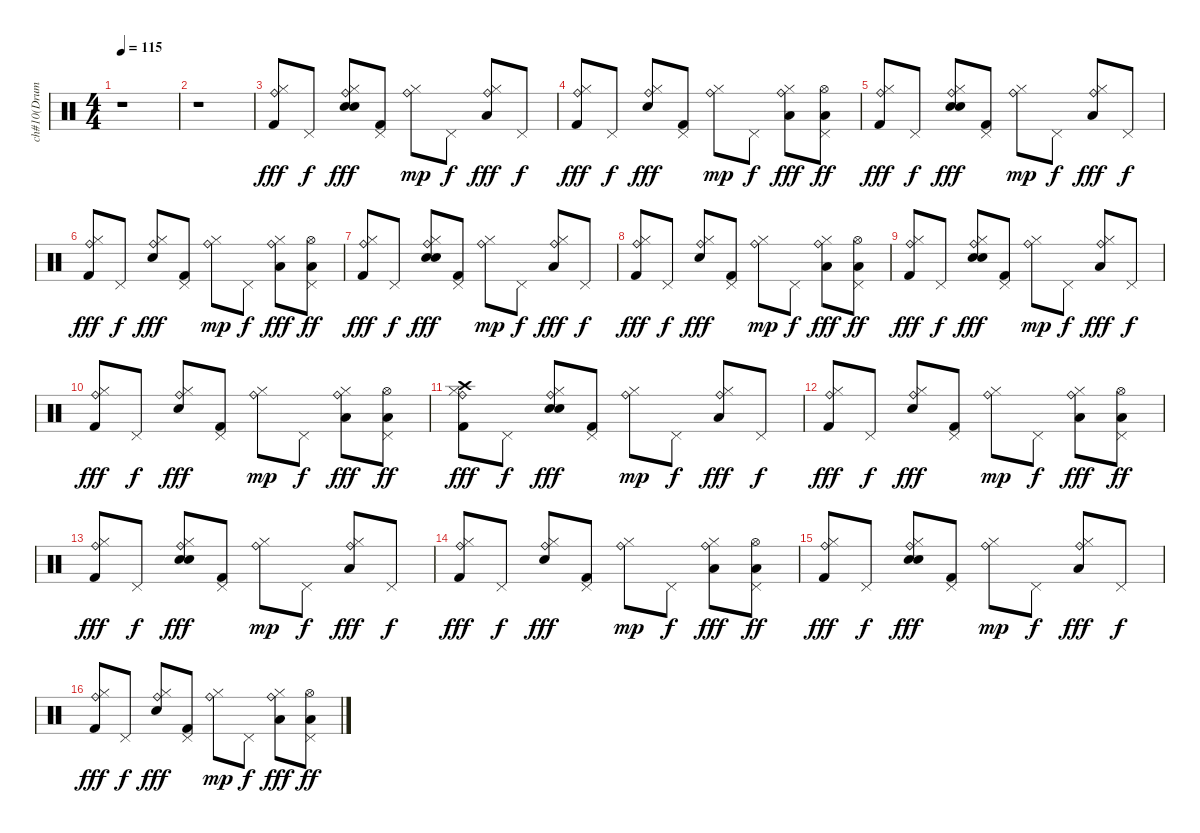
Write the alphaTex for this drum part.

\track ("ch#10(Drums)" "ch#10(Drum") {instrument percussion}
\staff {score}
\articulation defaults
\ts (4 4)
\tempo 115
\clef neutral
\ks c
r.1{dy fff} |
r.1 |
("Ride (bell)" "Hi-Hat (closed)" "Kick (hit) 2").8 "Pedal Hi-Hat (hit)".8{dy f} ("Electric Snare (hit)" "Ride (bell)" "Hi-Hat (closed)" "Electric Snare (hit)").8{dy fff} ("Kick (hit) 2" "Pedal Hi-Hat (hit)").8 ("Ride (bell)" "Hi-Hat (closed)").8{dy mp} "Pedal Hi-Hat (hit)".8{dy f} ("Ride (bell)" "Low Floor Tom (hit)" "Hi-Hat (closed)").8{dy fff} "Pedal Hi-Hat (hit)".8{dy f} |
("Ride (bell)" "Hi-Hat (closed)" "Kick (hit) 2").8{dy fff} "Pedal Hi-Hat (hit)".8{dy f} ("Ride (bell)" "Hi-Hat (closed)" "Electric Snare (hit)").8{dy fff} ("Pedal Hi-Hat (hit)" "Kick (hit) 2").8 ("Ride (bell)" "Hi-Hat (closed)").8{dy mp} "Pedal Hi-Hat (hit)".8{dy f} ("Ride (bell)" "Low Floor Tom (hit)" "Hi-Hat (closed)").8{dy fff} ("Hi-Hat (open)" "Low Floor Tom (hit)" "Pedal Hi-Hat (hit)").8{dy ff} |
("Ride (bell)" "Hi-Hat (closed)" "Kick (hit) 2").8{dy fff} "Pedal Hi-Hat (hit)".8{dy f} ("Electric Snare (hit)" "Ride (bell)" "Hi-Hat (closed)" "Electric Snare (hit)").8{dy fff} ("Kick (hit) 2" "Pedal Hi-Hat (hit)").8 ("Ride (bell)" "Hi-Hat (closed)").8{dy mp} "Pedal Hi-Hat (hit)".8{dy f} ("Ride (bell)" "Low Floor Tom (hit)" "Hi-Hat (closed)").8{dy fff} "Pedal Hi-Hat (hit)".8{dy f} |
("Ride (bell)" "Hi-Hat (closed)" "Kick (hit) 2").8{dy fff} "Pedal Hi-Hat (hit)".8{dy f} ("Ride (bell)" "Hi-Hat (closed)" "Electric Snare (hit)").8{dy fff} ("Pedal Hi-Hat (hit)" "Kick (hit) 2").8 ("Ride (bell)" "Hi-Hat (closed)").8{dy mp} "Pedal Hi-Hat (hit)".8{dy f} ("Ride (bell)" "Low Floor Tom (hit)" "Hi-Hat (closed)").8{dy fff} ("Hi-Hat (open)" "Low Floor Tom (hit)" "Pedal Hi-Hat (hit)").8{dy ff} |
("Ride (bell)" "Hi-Hat (closed)" "Kick (hit) 2").8{dy fff} "Pedal Hi-Hat (hit)".8{dy f} ("Electric Snare (hit)" "Ride (bell)" "Hi-Hat (closed)" "Electric Snare (hit)").8{dy fff} ("Kick (hit) 2" "Pedal Hi-Hat (hit)").8 ("Ride (bell)" "Hi-Hat (closed)").8{dy mp} "Pedal Hi-Hat (hit)".8{dy f} ("Ride (bell)" "Low Floor Tom (hit)" "Hi-Hat (closed)").8{dy fff} "Pedal Hi-Hat (hit)".8{dy f} |
("Ride (bell)" "Hi-Hat (closed)" "Kick (hit) 2").8{dy fff} "Pedal Hi-Hat (hit)".8{dy f} ("Ride (bell)" "Hi-Hat (closed)" "Electric Snare (hit)").8{dy fff} ("Pedal Hi-Hat (hit)" "Kick (hit) 2").8 ("Ride (bell)" "Hi-Hat (closed)").8{dy mp} "Pedal Hi-Hat (hit)".8{dy f} ("Ride (bell)" "Low Floor Tom (hit)" "Hi-Hat (closed)").8{dy fff} ("Hi-Hat (open)" "Low Floor Tom (hit)" "Pedal Hi-Hat (hit)").8{dy ff} |
("Ride (bell)" "Hi-Hat (closed)" "Kick (hit) 2").8{dy fff} "Pedal Hi-Hat (hit)".8{dy f} ("Electric Snare (hit)" "Ride (bell)" "Hi-Hat (closed)" "Electric Snare (hit)").8{dy fff} ("Kick (hit) 2" "Pedal Hi-Hat (hit)").8 ("Ride (bell)" "Hi-Hat (closed)").8{dy mp} "Pedal Hi-Hat (hit)".8{dy f} ("Ride (bell)" "Low Floor Tom (hit)" "Hi-Hat (closed)").8{dy fff} "Pedal Hi-Hat (hit)".8{dy f} |
("Ride (bell)" "Hi-Hat (closed)" "Kick (hit) 2").8{dy fff} "Pedal Hi-Hat (hit)".8{dy f} ("Ride (bell)" "Hi-Hat (closed)" "Electric Snare (hit)").8{dy fff} ("Pedal Hi-Hat (hit)" "Kick (hit) 2").8 ("Ride (bell)" "Hi-Hat (closed)").8{dy mp} "Pedal Hi-Hat (hit)".8{dy f} ("Ride (bell)" "Low Floor Tom (hit)" "Hi-Hat (closed)").8{dy fff} ("Hi-Hat (open)" "Low Floor Tom (hit)" "Pedal Hi-Hat (hit)").8{dy ff} |
("Ride (bell)" "Hi-Hat (closed)" "Kick (hit) 2" "Crash high (hit)").8{dy fff} "Pedal Hi-Hat (hit)".8{dy f} ("Electric Snare (hit)" "Ride (bell)" "Hi-Hat (closed)" "Electric Snare (hit)").8{dy fff} ("Kick (hit) 2" "Pedal Hi-Hat (hit)").8 ("Ride (bell)" "Hi-Hat (closed)").8{dy mp} "Pedal Hi-Hat (hit)".8{dy f} ("Ride (bell)" "Low Floor Tom (hit)" "Hi-Hat (closed)").8{dy fff} "Pedal Hi-Hat (hit)".8{dy f} |
("Ride (bell)" "Hi-Hat (closed)" "Kick (hit) 2").8{dy fff} "Pedal Hi-Hat (hit)".8{dy f} ("Ride (bell)" "Hi-Hat (closed)" "Electric Snare (hit)").8{dy fff} ("Pedal Hi-Hat (hit)" "Kick (hit) 2").8 ("Ride (bell)" "Hi-Hat (closed)").8{dy mp} "Pedal Hi-Hat (hit)".8{dy f} ("Ride (bell)" "Low Floor Tom (hit)" "Hi-Hat (closed)").8{dy fff} ("Hi-Hat (open)" "Low Floor Tom (hit)" "Pedal Hi-Hat (hit)").8{dy ff} |
("Ride (bell)" "Hi-Hat (closed)" "Kick (hit) 2").8{dy fff} "Pedal Hi-Hat (hit)".8{dy f} ("Electric Snare (hit)" "Ride (bell)" "Hi-Hat (closed)" "Electric Snare (hit)").8{dy fff} ("Kick (hit) 2" "Pedal Hi-Hat (hit)").8 ("Ride (bell)" "Hi-Hat (closed)").8{dy mp} "Pedal Hi-Hat (hit)".8{dy f} ("Ride (bell)" "Low Floor Tom (hit)" "Hi-Hat (closed)").8{dy fff} "Pedal Hi-Hat (hit)".8{dy f} |
("Ride (bell)" "Hi-Hat (closed)" "Kick (hit) 2").8{dy fff} "Pedal Hi-Hat (hit)".8{dy f} ("Ride (bell)" "Hi-Hat (closed)" "Electric Snare (hit)").8{dy fff} ("Pedal Hi-Hat (hit)" "Kick (hit) 2").8 ("Ride (bell)" "Hi-Hat (closed)").8{dy mp} "Pedal Hi-Hat (hit)".8{dy f} ("Ride (bell)" "Low Floor Tom (hit)" "Hi-Hat (closed)").8{dy fff} ("Hi-Hat (open)" "Low Floor Tom (hit)" "Pedal Hi-Hat (hit)").8{dy ff} |
("Ride (bell)" "Hi-Hat (closed)" "Kick (hit) 2").8{dy fff} "Pedal Hi-Hat (hit)".8{dy f} ("Electric Snare (hit)" "Ride (bell)" "Hi-Hat (closed)" "Electric Snare (hit)").8{dy fff} ("Kick (hit) 2" "Pedal Hi-Hat (hit)").8 ("Ride (bell)" "Hi-Hat (closed)").8{dy mp} "Pedal Hi-Hat (hit)".8{dy f} ("Ride (bell)" "Low Floor Tom (hit)" "Hi-Hat (closed)").8{dy fff} "Pedal Hi-Hat (hit)".8{dy f} |
("Ride (bell)" "Hi-Hat (closed)" "Kick (hit) 2").8{dy fff} "Pedal Hi-Hat (hit)".8{dy f} ("Ride (bell)" "Hi-Hat (closed)" "Electric Snare (hit)").8{dy fff} ("Pedal Hi-Hat (hit)" "Kick (hit) 2").8 ("Ride (bell)" "Hi-Hat (closed)").8{dy mp} "Pedal Hi-Hat (hit)".8{dy f} ("Ride (bell)" "Low Floor Tom (hit)" "Hi-Hat (closed)").8{dy fff} ("Hi-Hat (open)" "Low Floor Tom (hit)" "Pedal Hi-Hat (hit)").8{dy ff}
